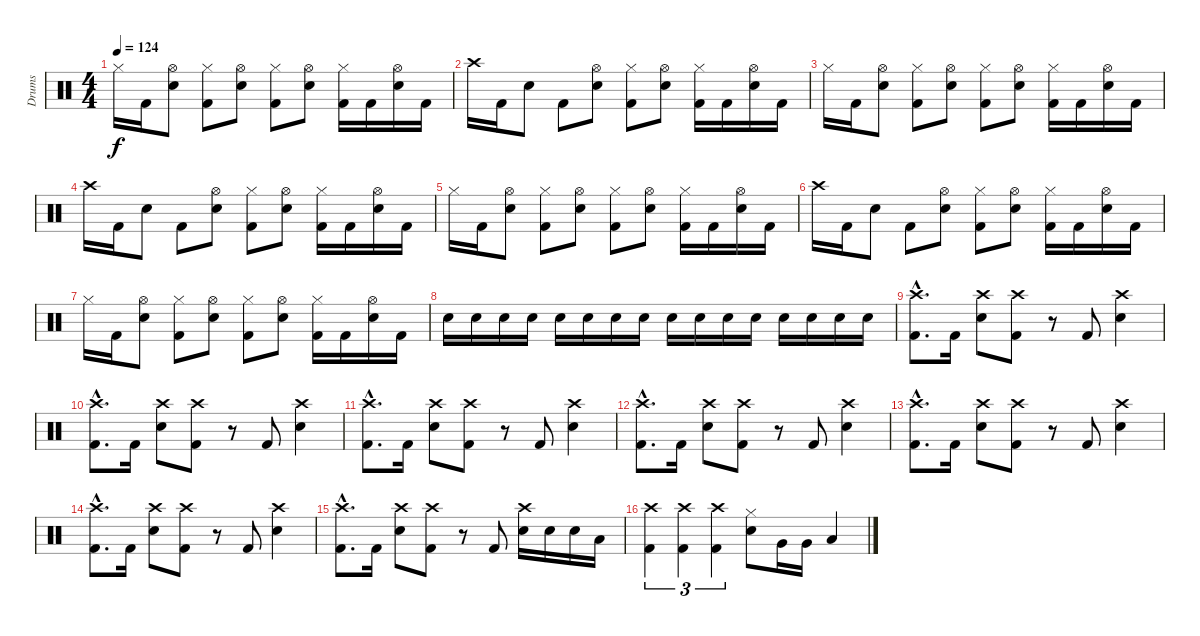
\track ("Drums" "Drums") {instrument percussion}
\staff {score}
\articulation defaults
\ts (4 4)
\tempo 124
\clef neutral
\ks c "Hi-Hat (closed)".16{dy f} "Kick (hit) 2".16
("Hi-Hat (open)" "Electric Snare (hit)").8 ("Hi-Hat (closed)" "Kick (hit) 2").8 ("Hi-Hat (open)" "Electric Snare (hit)").8 ("Hi-Hat (closed)" "Kick (hit) 2").8 ("Hi-Hat (open)" "Electric Snare (hit)").8 ("Hi-Hat (closed)" "Kick (hit) 2").16 "Kick (hit) 2".16 ("Hi-Hat (open)" "Electric Snare (hit)").16 "Kick (hit) 2".16 |
"Crash high (hit)".16 "Kick (hit) 2".16 "Electric Snare (hit)".8 "Kick (hit) 2".8 ("Hi-Hat (open)" "Electric Snare (hit)").8 ("Hi-Hat (closed)" "Kick (hit) 2").8 ("Hi-Hat (open)" "Electric Snare (hit)").8 ("Hi-Hat (closed)" "Kick (hit) 2").16 "Kick (hit) 2".16 ("Hi-Hat (open)" "Electric Snare (hit)").16 "Kick (hit) 2".16 |
"Hi-Hat (closed)".16 "Kick (hit) 2".16 ("Hi-Hat (open)" "Electric Snare (hit)").8 ("Hi-Hat (closed)" "Kick (hit) 2").8 ("Hi-Hat (open)" "Electric Snare (hit)").8 ("Hi-Hat (closed)" "Kick (hit) 2").8 ("Hi-Hat (open)" "Electric Snare (hit)").8 ("Hi-Hat (closed)" "Kick (hit) 2").16 "Kick (hit) 2".16 ("Hi-Hat (open)" "Electric Snare (hit)").16 "Kick (hit) 2".16 |
"Crash high (hit)".16 "Kick (hit) 2".16 "Electric Snare (hit)".8 "Kick (hit) 2".8 ("Hi-Hat (open)" "Electric Snare (hit)").8 ("Hi-Hat (closed)" "Kick (hit) 2").8 ("Hi-Hat (open)" "Electric Snare (hit)").8 ("Hi-Hat (closed)" "Kick (hit) 2").16 "Kick (hit) 2".16 ("Hi-Hat (open)" "Electric Snare (hit)").16 "Kick (hit) 2".16 |
"Hi-Hat (closed)".16 "Kick (hit) 2".16 ("Hi-Hat (open)" "Electric Snare (hit)").8 ("Hi-Hat (closed)" "Kick (hit) 2").8 ("Hi-Hat (open)" "Electric Snare (hit)").8 ("Hi-Hat (closed)" "Kick (hit) 2").8 ("Hi-Hat (open)" "Electric Snare (hit)").8 ("Hi-Hat (closed)" "Kick (hit) 2").16 "Kick (hit) 2".16 ("Hi-Hat (open)" "Electric Snare (hit)").16 "Kick (hit) 2".16 |
"Crash high (hit)".16 "Kick (hit) 2".16 "Electric Snare (hit)".8 "Kick (hit) 2".8 ("Hi-Hat (open)" "Electric Snare (hit)").8 ("Hi-Hat (closed)" "Kick (hit) 2").8 ("Hi-Hat (open)" "Electric Snare (hit)").8 ("Hi-Hat (closed)" "Kick (hit) 2").16 "Kick (hit) 2".16 ("Hi-Hat (open)" "Electric Snare (hit)").16 "Kick (hit) 2".16 |
"Hi-Hat (closed)".16 "Kick (hit) 2".16 ("Hi-Hat (open)" "Electric Snare (hit)").8 ("Hi-Hat (closed)" "Kick (hit) 2").8 ("Hi-Hat (open)" "Electric Snare (hit)").8 ("Hi-Hat (closed)" "Kick (hit) 2").8 ("Hi-Hat (open)" "Electric Snare (hit)").8 ("Hi-Hat (closed)" "Kick (hit) 2").16 "Kick (hit) 2".16 ("Hi-Hat (open)" "Electric Snare (hit)").16 "Kick (hit) 2".16 |
"Snare (hit) 2".16 "Snare (hit) 2".16 "Snare (hit) 2".16 "Snare (hit) 2".16 "Snare (hit) 2".16 "Snare (hit) 2".16 "Snare (hit) 2".16 "Snare (hit) 2".16 "Snare (hit) 2".16 "Snare (hit) 2".16 "Snare (hit) 2".16 "Snare (hit) 2".16 "Snare (hit) 2".16 "Snare (hit) 2".16 "Snare (hit) 2".16 "Snare (hit) 2".16 |
("Crash high (hit)"{hac} "Kick (hit) 2"{hac}).8{d} "Kick (hit) 2".16 ("Crash high (hit)" "Electric Snare (hit)").8 ("Crash high (hit)" "Kick (hit) 2").8 r.8 "Kick (hit) 2".8 ("Crash high (hit)" "Electric Snare (hit)").4 |
("Crash high (hit)"{hac} "Kick (hit) 2"{hac}).8{d} "Kick (hit) 2".16 ("Crash high (hit)" "Electric Snare (hit)").8 ("Crash high (hit)" "Kick (hit) 2").8 r.8 "Kick (hit) 2".8 ("Crash high (hit)" "Electric Snare (hit)").4 |
("Crash high (hit)"{hac} "Kick (hit) 2"{hac}).8{d} "Kick (hit) 2".16 ("Crash high (hit)" "Electric Snare (hit)").8 ("Crash high (hit)" "Kick (hit) 2").8 r.8 "Kick (hit) 2".8 ("Crash high (hit)" "Electric Snare (hit)").4 |
("Crash high (hit)"{hac} "Kick (hit) 2"{hac}).8{d} "Kick (hit) 2".16 ("Crash high (hit)" "Electric Snare (hit)").8 ("Crash high (hit)" "Kick (hit) 2").8 r.8 "Kick (hit) 2".8 ("Crash high (hit)" "Electric Snare (hit)").4 |
("Crash high (hit)"{hac} "Kick (hit) 2"{hac}).8{d} "Kick (hit) 2".16 ("Crash high (hit)" "Electric Snare (hit)").8 ("Crash high (hit)" "Kick (hit) 2").8 r.8 "Kick (hit) 2".8 ("Crash high (hit)" "Electric Snare (hit)").4 |
("Crash high (hit)"{hac} "Kick (hit) 2"{hac}).8{d} "Kick (hit) 2".16 ("Crash high (hit)" "Electric Snare (hit)").8 ("Crash high (hit)" "Kick (hit) 2").8 r.8 "Kick (hit) 2".8 ("Crash high (hit)" "Electric Snare (hit)").4 |
("Crash high (hit)"{hac} "Kick (hit) 2"{hac}).8{d} "Kick (hit) 2".16 ("Crash high (hit)" "Electric Snare (hit)").8 ("Crash high (hit)" "Kick (hit) 2").8 r.8 "Kick (hit) 2".8 ("Crash high (hit)" "Electric Snare (hit)").16 "Electric Snare (hit)".16 "Electric Snare (hit)".16 "Low Tom (hit)".16 |
("Crash high (hit)" "Kick (hit) 2").4{tu (3 2)} ("Crash high (hit)" "Kick (hit) 2").4{tu (3 2)} ("Crash high (hit)" "Kick (hit) 2").4{tu (3 2)} ("Hi-Hat (closed)" "Electric Snare (hit)").8 "Very Low Tom (hit)".16 "Very Low Tom (hit)".16 "Low Floor Tom (hit)".4
